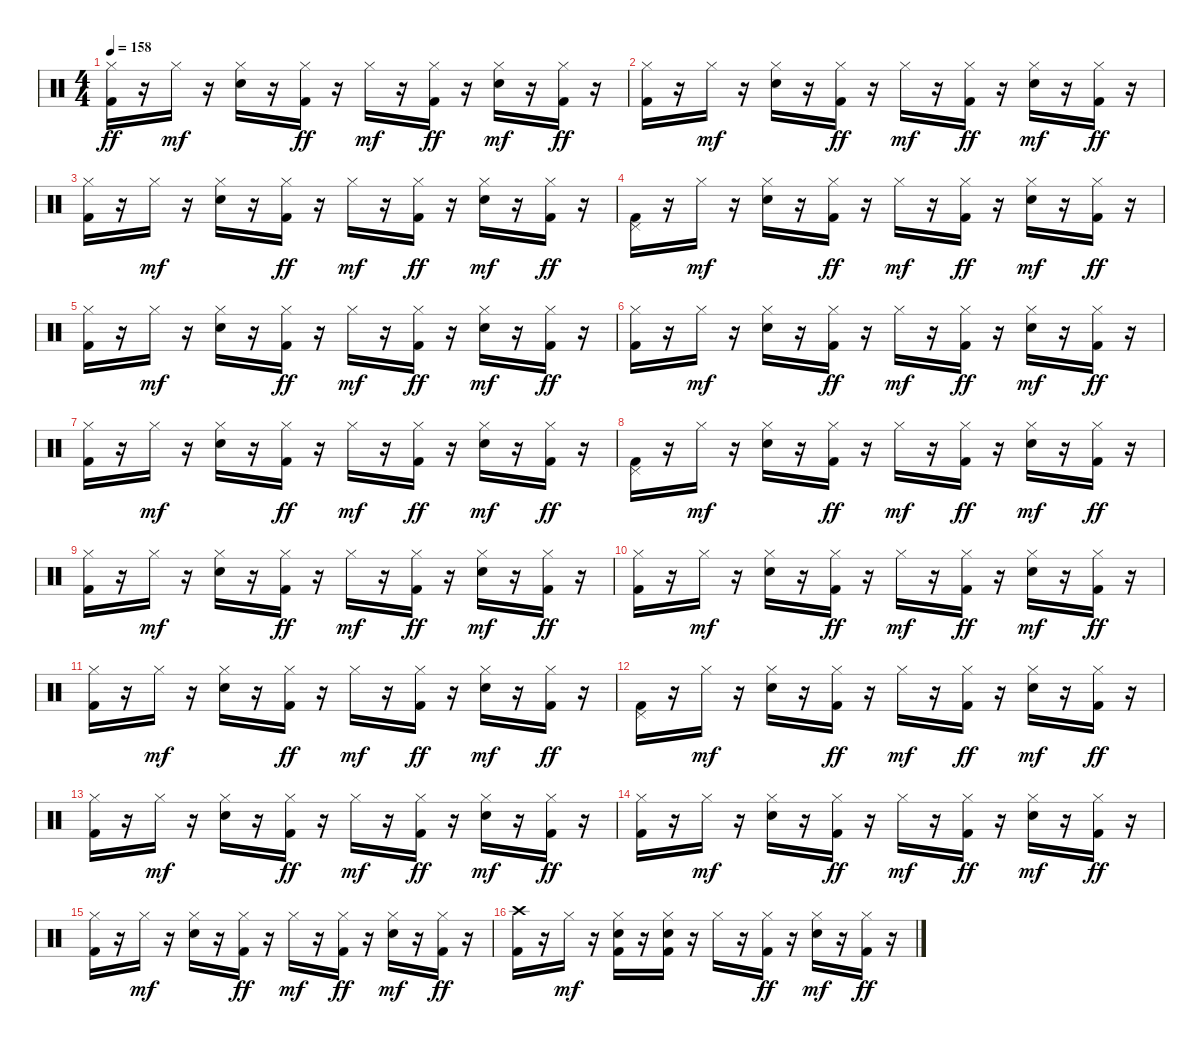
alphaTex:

\track ("   " "   ") {instrument percussion}
\staff
\articulation defaults
\ts (4 4)
\tempo 158
\clef neutral
\ks c
("Hi-Hat (closed)" "Kick (hit) 2").16{dy ff} r.16 "Hi-Hat (closed)".16{dy mf} r.16 ("Hi-Hat (closed)" "Electric Snare (hit)").16 r.16 ("Hi-Hat (closed)" "Kick (hit) 2").16{dy ff} r.16 "Hi-Hat (closed)".16{dy mf} r.16 ("Hi-Hat (closed)" "Kick (hit) 2").16{dy ff} r.16 ("Hi-Hat (closed)" "Electric Snare (hit)").16{dy mf} r.16 ("Hi-Hat (closed)" "Kick (hit) 2").16{dy ff} r.16 |
("Hi-Hat (closed)" "Kick (hit) 2").16 r.16 "Hi-Hat (closed)".16{dy mf} r.16 ("Hi-Hat (closed)" "Electric Snare (hit)").16 r.16 ("Hi-Hat (closed)" "Kick (hit) 2").16{dy ff} r.16 "Hi-Hat (closed)".16{dy mf} r.16 ("Hi-Hat (closed)" "Kick (hit) 2").16{dy ff} r.16 ("Hi-Hat (closed)" "Electric Snare (hit)").16{dy mf} r.16 ("Hi-Hat (closed)" "Kick (hit) 2").16{dy ff} r.16 |
("Hi-Hat (closed)" "Kick (hit) 2").16 r.16 "Hi-Hat (closed)".16{dy mf} r.16 ("Hi-Hat (closed)" "Electric Snare (hit)").16 r.16 ("Hi-Hat (closed)" "Kick (hit) 2").16{dy ff} r.16 "Hi-Hat (closed)".16{dy mf} r.16 ("Hi-Hat (closed)" "Kick (hit) 2").16{dy ff} r.16 ("Hi-Hat (closed)" "Electric Snare (hit)").16{dy mf} r.16 ("Hi-Hat (closed)" "Kick (hit) 2").16{dy ff} r.16 |
("Pedal Hi-Hat (hit)" "Kick (hit) 2").16 r.16 "Hi-Hat (closed)".16{dy mf} r.16 ("Hi-Hat (closed)" "Electric Snare (hit)").16 r.16 ("Hi-Hat (closed)" "Kick (hit) 2").16{dy ff} r.16 "Hi-Hat (closed)".16{dy mf} r.16 ("Hi-Hat (closed)" "Kick (hit) 2").16{dy ff} r.16 ("Hi-Hat (closed)" "Electric Snare (hit)").16{dy mf} r.16 ("Hi-Hat (closed)" "Kick (hit) 2").16{dy ff} r.16 |
("Hi-Hat (closed)" "Kick (hit) 2").16 r.16 "Hi-Hat (closed)".16{dy mf} r.16 ("Hi-Hat (closed)" "Electric Snare (hit)").16 r.16 ("Hi-Hat (closed)" "Kick (hit) 2").16{dy ff} r.16 "Hi-Hat (closed)".16{dy mf} r.16 ("Hi-Hat (closed)" "Kick (hit) 2").16{dy ff} r.16 ("Hi-Hat (closed)" "Electric Snare (hit)").16{dy mf} r.16 ("Hi-Hat (closed)" "Kick (hit) 2").16{dy ff} r.16 |
("Hi-Hat (closed)" "Kick (hit) 2").16 r.16 "Hi-Hat (closed)".16{dy mf} r.16 ("Hi-Hat (closed)" "Electric Snare (hit)").16 r.16 ("Hi-Hat (closed)" "Kick (hit) 2").16{dy ff} r.16 "Hi-Hat (closed)".16{dy mf} r.16 ("Hi-Hat (closed)" "Kick (hit) 2").16{dy ff} r.16 ("Hi-Hat (closed)" "Electric Snare (hit)").16{dy mf} r.16 ("Hi-Hat (closed)" "Kick (hit) 2").16{dy ff} r.16 |
("Hi-Hat (closed)" "Kick (hit) 2").16 r.16 "Hi-Hat (closed)".16{dy mf} r.16 ("Hi-Hat (closed)" "Electric Snare (hit)").16 r.16 ("Hi-Hat (closed)" "Kick (hit) 2").16{dy ff} r.16 "Hi-Hat (closed)".16{dy mf} r.16 ("Hi-Hat (closed)" "Kick (hit) 2").16{dy ff} r.16 ("Hi-Hat (closed)" "Electric Snare (hit)").16{dy mf} r.16 ("Hi-Hat (closed)" "Kick (hit) 2").16{dy ff} r.16 |
("Pedal Hi-Hat (hit)" "Kick (hit) 2").16 r.16 "Hi-Hat (closed)".16{dy mf} r.16 ("Hi-Hat (closed)" "Electric Snare (hit)").16 r.16 ("Hi-Hat (closed)" "Kick (hit) 2").16{dy ff} r.16 "Hi-Hat (closed)".16{dy mf} r.16 ("Hi-Hat (closed)" "Kick (hit) 2").16{dy ff} r.16 ("Hi-Hat (closed)" "Electric Snare (hit)").16{dy mf} r.16 ("Hi-Hat (closed)" "Kick (hit) 2").16{dy ff} r.16 |
("Hi-Hat (closed)" "Kick (hit) 2").16 r.16 "Hi-Hat (closed)".16{dy mf} r.16 ("Hi-Hat (closed)" "Electric Snare (hit)").16 r.16 ("Hi-Hat (closed)" "Kick (hit) 2").16{dy ff} r.16 "Hi-Hat (closed)".16{dy mf} r.16 ("Hi-Hat (closed)" "Kick (hit) 2").16{dy ff} r.16 ("Hi-Hat (closed)" "Electric Snare (hit)").16{dy mf} r.16 ("Hi-Hat (closed)" "Kick (hit) 2").16{dy ff} r.16 |
("Hi-Hat (closed)" "Kick (hit) 2").16 r.16 "Hi-Hat (closed)".16{dy mf} r.16 ("Hi-Hat (closed)" "Electric Snare (hit)").16 r.16 ("Hi-Hat (closed)" "Kick (hit) 2").16{dy ff} r.16 "Hi-Hat (closed)".16{dy mf} r.16 ("Hi-Hat (closed)" "Kick (hit) 2").16{dy ff} r.16 ("Hi-Hat (closed)" "Electric Snare (hit)").16{dy mf} r.16 ("Hi-Hat (closed)" "Kick (hit) 2").16{dy ff} r.16 |
("Hi-Hat (closed)" "Kick (hit) 2").16 r.16 "Hi-Hat (closed)".16{dy mf} r.16 ("Hi-Hat (closed)" "Electric Snare (hit)").16 r.16 ("Hi-Hat (closed)" "Kick (hit) 2").16{dy ff} r.16 "Hi-Hat (closed)".16{dy mf} r.16 ("Hi-Hat (closed)" "Kick (hit) 2").16{dy ff} r.16 ("Hi-Hat (closed)" "Electric Snare (hit)").16{dy mf} r.16 ("Hi-Hat (closed)" "Kick (hit) 2").16{dy ff} r.16 |
("Pedal Hi-Hat (hit)" "Kick (hit) 2").16 r.16 "Hi-Hat (closed)".16{dy mf} r.16 ("Hi-Hat (closed)" "Electric Snare (hit)").16 r.16 ("Hi-Hat (closed)" "Kick (hit) 2").16{dy ff} r.16 "Hi-Hat (closed)".16{dy mf} r.16 ("Hi-Hat (closed)" "Kick (hit) 2").16{dy ff} r.16 ("Hi-Hat (closed)" "Electric Snare (hit)").16{dy mf} r.16 ("Hi-Hat (closed)" "Kick (hit) 2").16{dy ff} r.16 |
("Hi-Hat (closed)" "Kick (hit) 2").16 r.16 "Hi-Hat (closed)".16{dy mf} r.16 ("Hi-Hat (closed)" "Electric Snare (hit)").16 r.16 ("Hi-Hat (closed)" "Kick (hit) 2").16{dy ff} r.16 "Hi-Hat (closed)".16{dy mf} r.16 ("Hi-Hat (closed)" "Kick (hit) 2").16{dy ff} r.16 ("Hi-Hat (closed)" "Electric Snare (hit)").16{dy mf} r.16 ("Hi-Hat (closed)" "Kick (hit) 2").16{dy ff} r.16 |
("Hi-Hat (closed)" "Kick (hit) 2").16 r.16 "Hi-Hat (closed)".16{dy mf} r.16 ("Hi-Hat (closed)" "Electric Snare (hit)").16 r.16 ("Hi-Hat (closed)" "Kick (hit) 2").16{dy ff} r.16 "Hi-Hat (closed)".16{dy mf} r.16 ("Hi-Hat (closed)" "Kick (hit) 2").16{dy ff} r.16 ("Hi-Hat (closed)" "Electric Snare (hit)").16{dy mf} r.16 ("Hi-Hat (closed)" "Kick (hit) 2").16{dy ff} r.16 |
("Hi-Hat (closed)" "Kick (hit) 2").16 r.16 "Hi-Hat (closed)".16{dy mf} r.16 ("Hi-Hat (closed)" "Electric Snare (hit)").16 r.16 ("Hi-Hat (closed)" "Kick (hit) 2").16{dy ff} r.16 "Hi-Hat (closed)".16{dy mf} r.16 ("Hi-Hat (closed)" "Kick (hit) 2").16{dy ff} r.16 ("Hi-Hat (closed)" "Electric Snare (hit)").16{dy mf} r.16 ("Hi-Hat (closed)" "Kick (hit) 2").16{dy ff} r.16 |
("Crash high (hit)" "Kick (hit) 2").16 r.16 "Hi-Hat (closed)".16{dy mf} r.16 ("Hi-Hat (closed)" "Electric Snare (hit)" "Kick (hit) 2").16 r.16 ("Hi-Hat (closed)" "Electric Snare (hit)" "Kick (hit) 2").16 r.16 "Hi-Hat (closed)".16 r.16 ("Hi-Hat (closed)" "Kick (hit) 2").16{dy ff} r.16 ("Hi-Hat (closed)" "Electric Snare (hit)").16{dy mf} r.16 ("Hi-Hat (closed)" "Kick (hit) 2").16{dy ff} r.16
